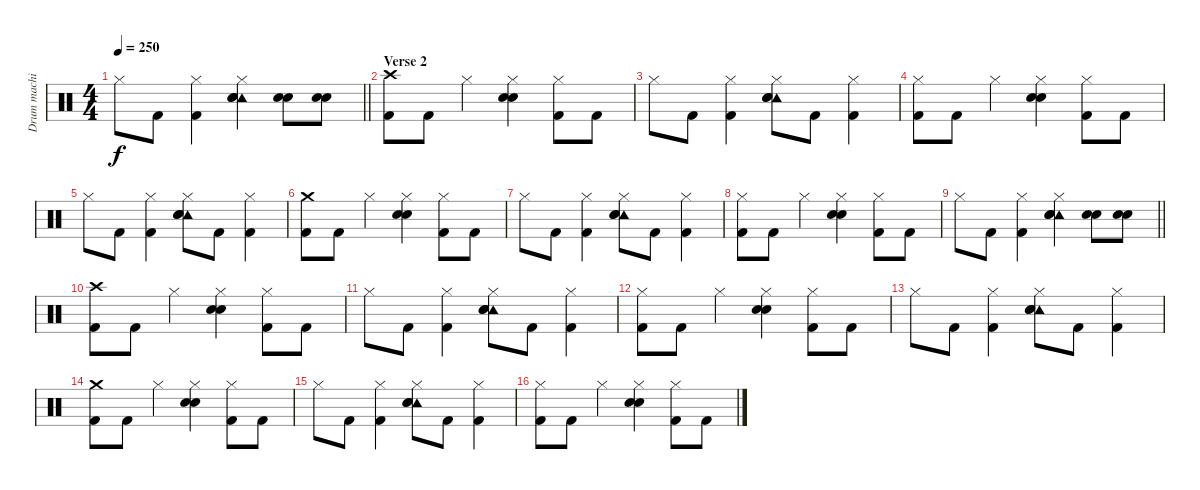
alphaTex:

\track ("Drum machine" "Drum machi") {instrument percussion}
\staff {score}
\articulation defaults
\ts (4 4)
\tempo 250
\clef neutral
\barLineRight lightlight
\ks c "Hi-Hat (closed)".8{dy f} "Kick (hit) 2".8
("Hi-Hat (closed)" "Kick (hit) 2").4 ("Tambourine (hit)" "Hi-Hat (closed)" "Electric Snare (hit)" "Snare (hit) 2").4 ("Electric Snare (hit)" "Snare (hit) 2").8 ("Electric Snare (hit)" "Snare (hit) 2").8 |
\section ("" "Verse 2")
("Crash high (hit)" "Kick (hit) 2").8 "Kick (hit) 2".8 "Hi-Hat (closed)".4 ("Hi-Hat (closed)" "Electric Snare (hit)" "Snare (hit) 2").4 ("Hi-Hat (closed)" "Kick (hit) 2").8 "Kick (hit) 2".8 |
"Hi-Hat (closed)".8 "Kick (hit) 2".8 ("Hi-Hat (closed)" "Kick (hit) 2").4 ("Tambourine (hit)" "Hi-Hat (closed)" "Electric Snare (hit)" "Snare (hit) 2").8 "Kick (hit) 2".8 ("Hi-Hat (closed)" "Kick (hit) 2").4 |
("Hi-Hat (closed)" "Kick (hit) 2").8 "Kick (hit) 2".8 "Hi-Hat (closed)".4 ("Hi-Hat (closed)" "Electric Snare (hit)" "Snare (hit) 2").4 ("Hi-Hat (closed)" "Kick (hit) 2").8 "Kick (hit) 2".8 |
"Hi-Hat (closed)".8 "Kick (hit) 2".8 ("Hi-Hat (closed)" "Kick (hit) 2").4 ("Tambourine (hit)" "Hi-Hat (closed)" "Electric Snare (hit)" "Snare (hit) 2").8 "Kick (hit) 2".8 ("Hi-Hat (closed)" "Kick (hit) 2").4 |
("Crash medium (hit)" "Kick (hit) 2").8 "Kick (hit) 2".8 "Hi-Hat (closed)".4 ("Hi-Hat (closed)" "Electric Snare (hit)" "Snare (hit) 2").4 ("Hi-Hat (closed)" "Kick (hit) 2").8 "Kick (hit) 2".8 |
"Hi-Hat (closed)".8 "Kick (hit) 2".8 ("Hi-Hat (closed)" "Kick (hit) 2").4 ("Tambourine (hit)" "Hi-Hat (closed)" "Electric Snare (hit)" "Snare (hit) 2").8 "Kick (hit) 2".8 ("Hi-Hat (closed)" "Kick (hit) 2").4 |
("Hi-Hat (closed)" "Kick (hit) 2").8 "Kick (hit) 2".8 "Hi-Hat (closed)".4 ("Hi-Hat (closed)" "Electric Snare (hit)" "Snare (hit) 2").4 ("Hi-Hat (closed)" "Kick (hit) 2").8 "Kick (hit) 2".8 |
\barLineRight lightlight "Hi-Hat (closed)".8 "Kick (hit) 2".8
("Hi-Hat (closed)" "Kick (hit) 2").4 ("Tambourine (hit)" "Hi-Hat (closed)" "Electric Snare (hit)" "Snare (hit) 2").4 ("Electric Snare (hit)" "Snare (hit) 2").8 ("Electric Snare (hit)" "Snare (hit) 2").8 |
("Crash high (hit)" "Kick (hit) 2").8 "Kick (hit) 2".8 "Hi-Hat (closed)".4 ("Hi-Hat (closed)" "Electric Snare (hit)" "Snare (hit) 2").4 ("Hi-Hat (closed)" "Kick (hit) 2").8 "Kick (hit) 2".8 |
"Hi-Hat (closed)".8 "Kick (hit) 2".8 ("Hi-Hat (closed)" "Kick (hit) 2").4 ("Tambourine (hit)" "Hi-Hat (closed)" "Electric Snare (hit)" "Snare (hit) 2").8 "Kick (hit) 2".8 ("Hi-Hat (closed)" "Kick (hit) 2").4 |
("Hi-Hat (closed)" "Kick (hit) 2").8 "Kick (hit) 2".8 "Hi-Hat (closed)".4 ("Hi-Hat (closed)" "Electric Snare (hit)" "Snare (hit) 2").4 ("Hi-Hat (closed)" "Kick (hit) 2").8 "Kick (hit) 2".8 |
"Hi-Hat (closed)".8 "Kick (hit) 2".8 ("Hi-Hat (closed)" "Kick (hit) 2").4 ("Tambourine (hit)" "Hi-Hat (closed)" "Electric Snare (hit)" "Snare (hit) 2").8 "Kick (hit) 2".8 ("Hi-Hat (closed)" "Kick (hit) 2").4 |
("Crash medium (hit)" "Kick (hit) 2").8 "Kick (hit) 2".8 "Hi-Hat (closed)".4 ("Hi-Hat (closed)" "Electric Snare (hit)" "Snare (hit) 2").4 ("Hi-Hat (closed)" "Kick (hit) 2").8 "Kick (hit) 2".8 |
"Hi-Hat (closed)".8 "Kick (hit) 2".8 ("Hi-Hat (closed)" "Kick (hit) 2").4 ("Tambourine (hit)" "Hi-Hat (closed)" "Electric Snare (hit)" "Snare (hit) 2").8 "Kick (hit) 2".8 ("Hi-Hat (closed)" "Kick (hit) 2").4 |
("Hi-Hat (closed)" "Kick (hit) 2").8 "Kick (hit) 2".8 "Hi-Hat (closed)".4 ("Hi-Hat (closed)" "Electric Snare (hit)" "Snare (hit) 2").4 ("Hi-Hat (closed)" "Kick (hit) 2").8 "Kick (hit) 2".8
